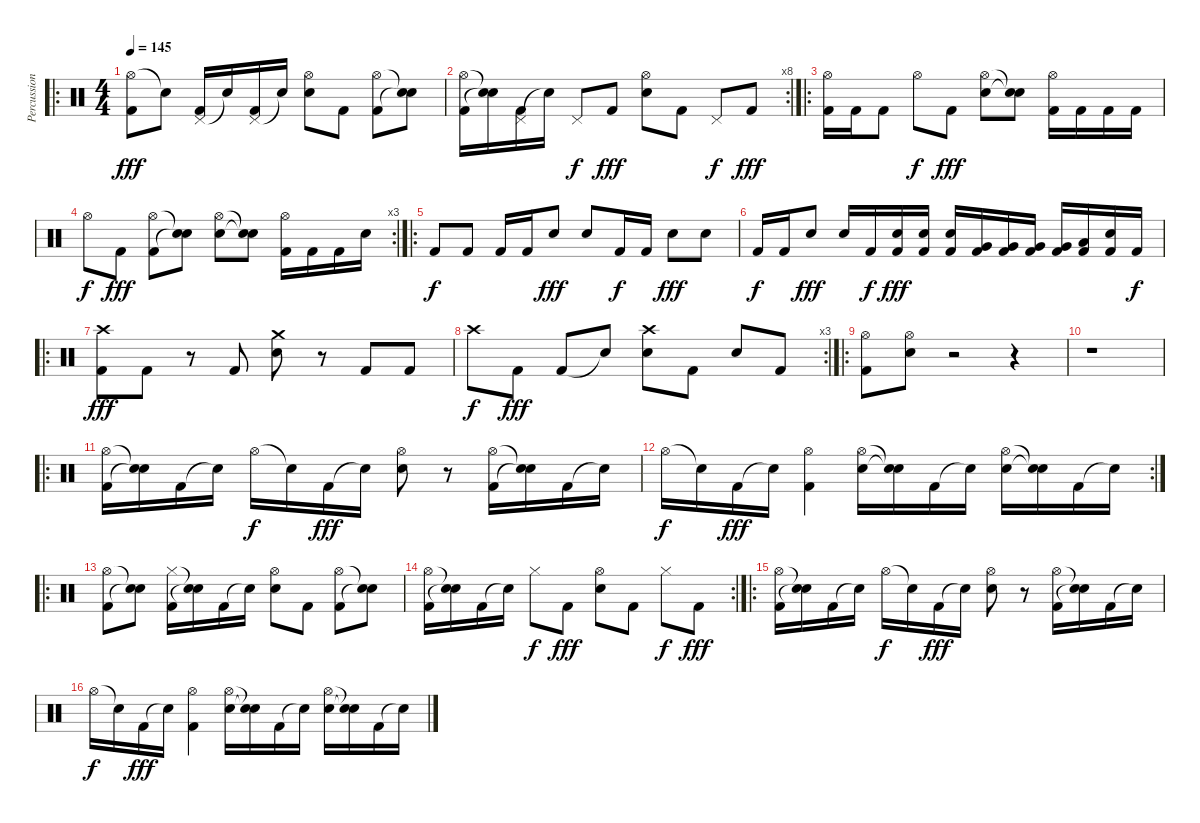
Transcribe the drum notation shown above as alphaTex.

\track ("Percussion" "Percussion") {instrument percussion}
\staff {score}
\articulation defaults
\ro
\ts (4 4)
\tempo 145
\clef neutral
\ks c
("Hi-Hat (open)" "Kick (hit) 2").8{dy fff} "Snare (hit)"{t}.8 ("Pedal Hi-Hat (hit)" "Kick (hit) 2").16 "Snare (hit)"{t}.16 ("Pedal Hi-Hat (hit)" "Kick (hit) 2").16 "Snare (hit)"{t}.16 ("Hi-Hat (open)" "Electric Snare (hit)").8 "Kick (hit) 2".8 ("Hi-Hat (open)" "Kick (hit) 2").8 ("Snare (hit)"{t} "Snare (hit)"{t}).8 |
\rc 8
("Hi-Hat (open)" "Kick (hit) 2").16 ("Snare (hit)"{t} "Snare (hit)"{t}).16 ("Pedal Hi-Hat (hit)" "Kick (hit) 2").16 "Snare (hit)"{t}.16 "Pedal Hi-Hat (hit)".8{dy f} "Kick (hit) 2".8{dy fff} ("Hi-Hat (open)" "Electric Snare (hit)").8 "Kick (hit) 2".8 "Pedal Hi-Hat (hit)".8{dy f} "Kick (hit) 2".8{dy fff} |
\ro
("Hi-Hat (open)" "Kick (hit) 2").16 "Kick (hit) 2".16 "Kick (hit) 2".8 "Hi-Hat (open)".8{dy f} "Kick (hit) 2".8{dy fff} ("Hi-Hat (open)" "Electric Snare (hit)").8 ("Snare (hit)"{t} "Snare (hit)"{t}).8 ("Hi-Hat (open)" "Kick (hit) 2").16 "Kick (hit) 2".16 "Kick (hit) 2".16 "Kick (hit) 2".16 |
\rc 3 "Hi-Hat (open)".8{dy f} "Kick (hit) 2".8{dy fff}
("Hi-Hat (open)" "Kick (hit) 2").8 ("Snare (hit)"{t} "Snare (hit)"{t}).8 ("Hi-Hat (open)" "Electric Snare (hit)").8 ("Snare (hit)"{t} "Snare (hit)"{t}).8 ("Hi-Hat (open)" "Kick (hit) 2").16 "Kick (hit) 2".16 "Kick (hit) 2".16 "Electric Snare (hit)".16 |
\ro "Kick (hit) 2".8{dy f} "Kick (hit) 2".8 "Kick (hit) 2".16 "Kick (hit) 2".16 "Electric Snare (hit)".8{dy fff} "Electric Snare (hit)".8 "Kick (hit) 2".16{dy f} "Kick (hit) 2".16 "Electric Snare (hit)".8{dy fff} "Electric Snare (hit)".8
|
"Kick (hit) 2".16{dy f} "Kick (hit) 2".16 "Electric Snare (hit)".8{dy fff} "Electric Snare (hit)".16 "Kick (hit) 2".16{dy f} ("Kick (hit) 2" "Electric Snare (hit)").16{dy fff} ("Kick (hit) 2" "Electric Snare (hit)").16 ("Kick (hit) 2" "Electric Snare (hit)").16 ("Kick (hit) 2" "Very Low Tom (hit)").16 ("Kick (hit) 2" "Very Low Tom (hit)").16 ("Kick (hit) 2" "Very Low Tom (hit)").16 ("Kick (hit) 2" "Very Low Tom (hit)").16 ("Kick (hit) 2" "Low Floor Tom (hit)").16 ("Kick (hit) 2" "Electric Snare (hit)").16 "Kick (hit) 2".16{dy f} |
\ro
("Crash high (hit)" "Kick (hit) 2").8{dy fff} "Kick (hit) 2".8 r.8 "Kick (hit) 2".8 ("Crash medium (hit)" "Electric Snare (hit)").8 r.8 "Kick (hit) 2".8 "Kick (hit) 2".8 |
\rc 3 "Crash high (hit)".8{dy f} "Kick (hit) 2".8{dy fff} "Kick (hit) 2".8 "Snare (hit)"{t}.8
("Crash high (hit)" "Electric Snare (hit)").8 "Kick (hit) 2".8 "Electric Snare (hit)".8 "Kick (hit) 2".8 |
\ro
("Hi-Hat (open)" "Kick (hit) 2").8 ("Hi-Hat (open)" "Electric Snare (hit)").8 r.2 r.4 |
r.1 |
\ro
("Hi-Hat (open)" "Kick (hit) 2").16 ("Snare (hit)"{t} "Snare (hit)"{t}).16 "Kick (hit) 2".16 "Snare (hit)"{t}.16 "Hi-Hat (open)".16{dy f} "Snare (hit)"{t}.16 "Kick (hit) 2".16{dy fff} "Snare (hit)"{t}.16 ("Hi-Hat (open)" "Electric Snare (hit)").8 r.8 ("Hi-Hat (open)" "Kick (hit) 2").16 ("Snare (hit)"{t} "Snare (hit)"{t}).16 "Kick (hit) 2".16 "Snare (hit)"{t}.16 |
\rc 2 "Hi-Hat (open)".16{dy f} "Snare (hit)"{t}.16 "Kick (hit) 2".16{dy fff} "Snare (hit)"{t}.16
("Hi-Hat (open)" "Kick (hit) 2").4 ("Hi-Hat (open)" "Electric Snare (hit)").16 ("Snare (hit)"{t} "Snare (hit)"{t}).16 "Kick (hit) 2".16 "Snare (hit)"{t}.16 ("Hi-Hat (open)" "Electric Snare (hit)").16 ("Snare (hit)"{t} "Snare (hit)"{t}).16 "Kick (hit) 2".16 "Snare (hit)"{t}.16 |
\ro
("Hi-Hat (open)" "Kick (hit) 2").8 ("Snare (hit)"{t} "Snare (hit)"{t}).8 ("Hi-Hat (closed)" "Kick (hit) 2").16 ("Snare (hit)"{t} "Snare (hit)"{t}).16 "Kick (hit) 2".16 "Snare (hit)"{t}.16 ("Hi-Hat (open)" "Electric Snare (hit)").8 "Kick (hit) 2".8 ("Hi-Hat (open)" "Kick (hit) 2").8 ("Snare (hit)"{t} "Snare (hit)"{t}).8 |
\rc 2
("Hi-Hat (open)" "Kick (hit) 2").16 ("Snare (hit)"{t} "Snare (hit)"{t}).16 "Kick (hit) 2".16 "Snare (hit)"{t}.16 "Hi-Hat (closed)".8{dy f} "Kick (hit) 2".8{dy fff} ("Hi-Hat (open)" "Electric Snare (hit)").8 "Kick (hit) 2".8 "Hi-Hat (closed)".8{dy f} "Kick (hit) 2".8{dy fff} |
\ro
("Hi-Hat (open)" "Kick (hit) 2").16 ("Snare (hit)"{t} "Snare (hit)"{t}).16 "Kick (hit) 2".16 "Snare (hit)"{t}.16 "Hi-Hat (open)".16{dy f} "Snare (hit)"{t}.16 "Kick (hit) 2".16{dy fff} "Snare (hit)"{t}.16 ("Hi-Hat (open)" "Electric Snare (hit)").8 r.8 ("Hi-Hat (open)" "Kick (hit) 2").16 ("Snare (hit)"{t} "Snare (hit)"{t}).16 "Kick (hit) 2".16 "Snare (hit)"{t}.16 |
"Hi-Hat (open)".16{dy f} "Snare (hit)"{t}.16 "Kick (hit) 2".16{dy fff} "Snare (hit)"{t}.16 ("Hi-Hat (open)" "Kick (hit) 2").4 ("Hi-Hat (open)" "Electric Snare (hit)").16 ("Snare (hit)"{t} "Snare (hit)"{t}).16 "Kick (hit) 2".16 "Snare (hit)"{t}.16 ("Hi-Hat (open)" "Electric Snare (hit)").16 ("Snare (hit)"{t} "Snare (hit)"{t}).16 "Kick (hit) 2".16 "Snare (hit)"{t}.16
